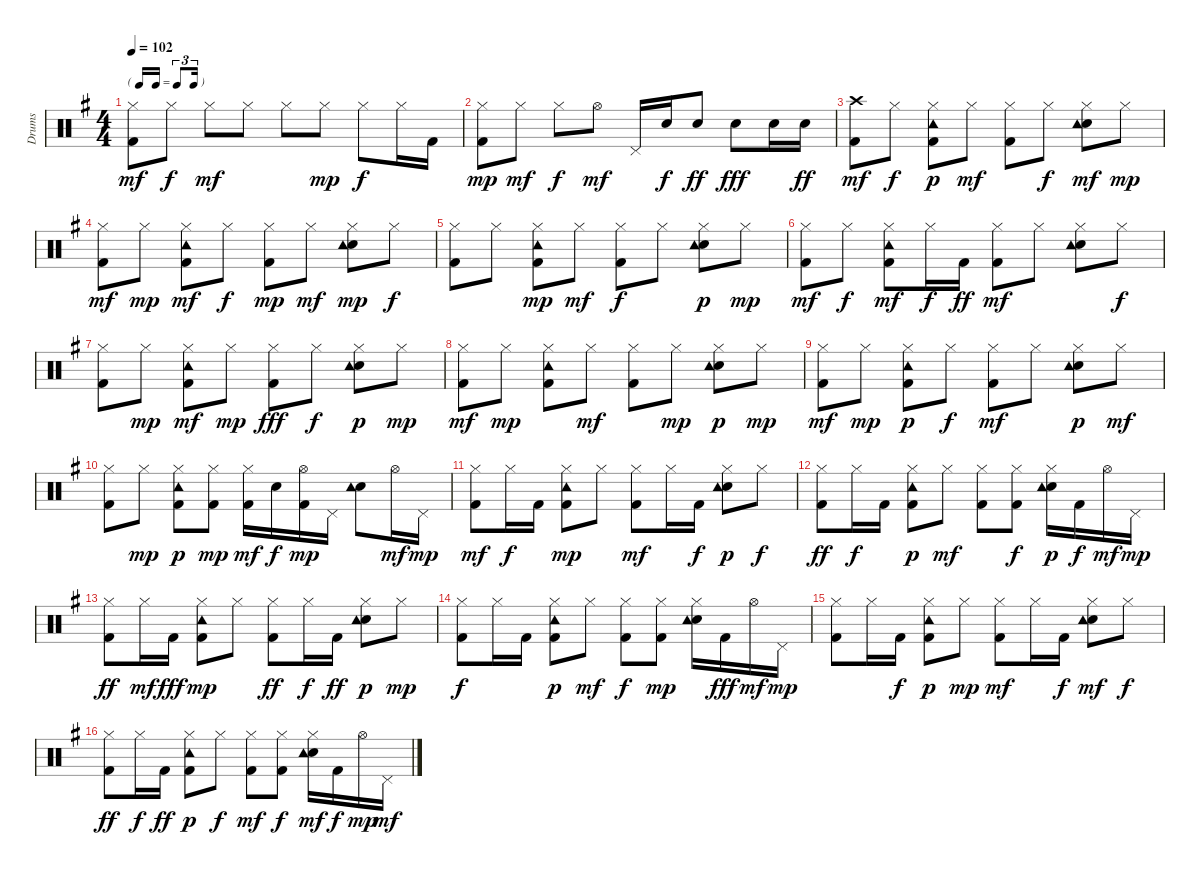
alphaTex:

\track ("Drums" "Drums") {instrument percussion}
\staff {score}
\articulation defaults
\ts (4 4)
\tf triplet16th
\tempo 102
\clef neutral
\ks g
("Kick (hit) 2" "Hi-Hat (closed)").8{dy mf} "Hi-Hat (closed)".8{dy f} "Hi-Hat (closed)".8{dy mf} "Hi-Hat (closed)".8 "Hi-Hat (closed)".8 "Hi-Hat (closed)".8{dy mp} "Hi-Hat (closed)".8{dy f} "Hi-Hat (closed)".16 "Kick (hit) 2".16 |
("Kick (hit) 2" "Hi-Hat (closed)").8{dy mp} "Hi-Hat (closed)".8{dy mf} "Hi-Hat (closed)".8{dy f} "Hi-Hat (open)".8{dy mf} "Pedal Hi-Hat (hit)".16 "Snare (hit) 2".16{dy f} "Snare (hit) 2".8{dy ff} "Snare (hit) 2".8{dy fff} "Snare (hit) 2".16 "Snare (hit) 2".16{dy ff} |
("Kick (hit) 2" "Crash high (hit)").8{dy mf} "Hi-Hat (closed)".8{dy f} ("Kick (hit) 2" "Hi-Hat (closed)" "Tambourine (hit)").8{dy p} "Hi-Hat (closed)".8{dy mf} ("Kick (hit) 2" "Hi-Hat (closed)").8 "Hi-Hat (closed)".8{dy f} ("Snare (hit) 2" "Hi-Hat (closed)" "Tambourine (hit)").8{dy mf} "Hi-Hat (closed)".8{dy mp} |
("Kick (hit) 2" "Hi-Hat (closed)").8{dy mf} "Hi-Hat (closed)".8{dy mp} ("Kick (hit) 2" "Hi-Hat (closed)" "Tambourine (hit)").8{dy mf} "Hi-Hat (closed)".8{dy f} ("Kick (hit) 2" "Hi-Hat (closed)").8{dy mp} "Hi-Hat (closed)".8{dy mf} ("Snare (hit) 2" "Hi-Hat (closed)" "Tambourine (hit)").8{dy mp} "Hi-Hat (closed)".8{dy f} |
("Kick (hit) 2" "Hi-Hat (closed)").8 "Hi-Hat (closed)".8 ("Kick (hit) 2" "Hi-Hat (closed)" "Tambourine (hit)").8{dy mp} "Hi-Hat (closed)".8{dy mf} ("Kick (hit) 2" "Hi-Hat (closed)").8{dy f} "Hi-Hat (closed)".8 ("Snare (hit) 2" "Hi-Hat (closed)" "Tambourine (hit)").8{dy p} "Hi-Hat (closed)".8{dy mp} |
("Kick (hit) 2" "Hi-Hat (closed)").8{dy mf} "Hi-Hat (closed)".8{dy f} ("Kick (hit) 2" "Hi-Hat (closed)" "Tambourine (hit)").8{dy mf} "Hi-Hat (closed)".16{dy f} "Kick (hit) 2".16{dy ff} ("Kick (hit) 2" "Hi-Hat (closed)").8{dy mf} "Hi-Hat (closed)".8 ("Snare (hit) 2" "Hi-Hat (closed)" "Tambourine (hit)").8 "Hi-Hat (closed)".8{dy f} |
("Kick (hit) 2" "Hi-Hat (closed)").8 "Hi-Hat (closed)".8{dy mp} ("Kick (hit) 2" "Hi-Hat (closed)" "Tambourine (hit)").8{dy mf} "Hi-Hat (closed)".8{dy mp} ("Kick (hit) 2" "Hi-Hat (closed)").8{dy fff} "Hi-Hat (closed)".8{dy f} ("Snare (hit) 2" "Hi-Hat (closed)" "Tambourine (hit)").8{dy p} "Hi-Hat (closed)".8{dy mp} |
("Kick (hit) 2" "Hi-Hat (closed)").8{dy mf} "Hi-Hat (closed)".8{dy mp} ("Kick (hit) 2" "Hi-Hat (closed)" "Tambourine (hit)").8 "Hi-Hat (closed)".8{dy mf} ("Kick (hit) 2" "Hi-Hat (closed)").8 "Hi-Hat (closed)".8{dy mp} ("Snare (hit) 2" "Hi-Hat (closed)" "Tambourine (hit)").8{dy p} "Hi-Hat (closed)".8{dy mp} |
("Kick (hit) 2" "Hi-Hat (closed)").8{dy mf} "Hi-Hat (closed)".8{dy mp} ("Kick (hit) 2" "Hi-Hat (closed)" "Tambourine (hit)").8{dy p} "Hi-Hat (closed)".8{dy f} ("Kick (hit) 2" "Hi-Hat (closed)").8{dy mf} "Hi-Hat (closed)".8 ("Snare (hit) 2" "Hi-Hat (closed)" "Tambourine (hit)").8{dy p} "Hi-Hat (closed)".8{dy mf} |
("Kick (hit) 2" "Hi-Hat (closed)").8 "Hi-Hat (closed)".8{dy mp} ("Kick (hit) 2" "Hi-Hat (closed)" "Tambourine (hit)").8{dy p} ("Kick (hit) 2" "Hi-Hat (closed)").8{dy mp} ("Kick (hit) 2" "Hi-Hat (closed)").16{dy mf} "Snare (hit) 2".16{dy f} ("Kick (hit) 2" "Hi-Hat (open)").16{dy mp} "Pedal Hi-Hat (hit)".16 ("Snare (hit) 2" "Tambourine (hit)").8 "Hi-Hat (open)".16{dy mf} "Pedal Hi-Hat (hit)".16{dy mp} |
("Kick (hit) 2" "Hi-Hat (closed)").8{dy mf} "Hi-Hat (closed)".16{dy f} "Kick (hit) 2".16 ("Kick (hit) 2" "Hi-Hat (closed)" "Tambourine (hit)").8{dy mp} "Hi-Hat (closed)".8 ("Kick (hit) 2" "Hi-Hat (closed)").8{dy mf} "Hi-Hat (closed)".16 "Kick (hit) 2".16{dy f} ("Snare (hit) 2" "Hi-Hat (closed)" "Tambourine (hit)").8{dy p} "Hi-Hat (closed)".8{dy f} |
("Kick (hit) 2" "Hi-Hat (closed)").8{dy ff} "Hi-Hat (closed)".16{dy f} "Kick (hit) 2".16 ("Kick (hit) 2" "Hi-Hat (closed)" "Tambourine (hit)").8{dy p} "Hi-Hat (closed)".8{dy mf} ("Kick (hit) 2" "Hi-Hat (closed)").8 ("Kick (hit) 2" "Hi-Hat (closed)").8{dy f} ("Snare (hit) 2" "Hi-Hat (closed)" "Tambourine (hit)").16{dy p} "Kick (hit) 2".16{dy f} "Hi-Hat (open)".16{dy mf} "Pedal Hi-Hat (hit)".16{dy mp} |
("Kick (hit) 2" "Hi-Hat (closed)").8{dy ff} "Hi-Hat (closed)".16{dy mf} "Kick (hit) 2".16{dy fff} ("Kick (hit) 2" "Hi-Hat (closed)" "Tambourine (hit)").8{dy mp} "Hi-Hat (closed)".8 ("Kick (hit) 2" "Hi-Hat (closed)").8{dy ff} "Hi-Hat (closed)".16{dy f} "Kick (hit) 2".16{dy ff} ("Snare (hit) 2" "Hi-Hat (closed)" "Tambourine (hit)").8{dy p} "Hi-Hat (closed)".8{dy mp} |
("Kick (hit) 2" "Hi-Hat (closed)").8{dy f} "Hi-Hat (closed)".16 "Kick (hit) 2".16 ("Kick (hit) 2" "Hi-Hat (closed)" "Tambourine (hit)").8{dy p} "Hi-Hat (closed)".8{dy mf} ("Kick (hit) 2" "Hi-Hat (closed)").8{dy f} ("Kick (hit) 2" "Hi-Hat (closed)").8{dy mp} ("Snare (hit) 2" "Hi-Hat (closed)" "Tambourine (hit)").16 "Kick (hit) 2".16{dy fff} "Hi-Hat (open)".16{dy mf} "Pedal Hi-Hat (hit)".16{dy mp} |
("Kick (hit) 2" "Hi-Hat (closed)").8 "Hi-Hat (closed)".16 "Kick (hit) 2".16{dy f} ("Kick (hit) 2" "Hi-Hat (closed)" "Tambourine (hit)").8{dy p} "Hi-Hat (closed)".8{dy mp} ("Kick (hit) 2" "Hi-Hat (closed)").8{dy mf} "Hi-Hat (closed)".16 "Kick (hit) 2".16{dy f} ("Snare (hit) 2" "Hi-Hat (closed)" "Tambourine (hit)").8{dy mf} "Hi-Hat (closed)".8{dy f} |
("Kick (hit) 2" "Hi-Hat (closed)").8{dy ff} "Hi-Hat (closed)".16{dy f} "Kick (hit) 2".16{dy ff} ("Kick (hit) 2" "Hi-Hat (closed)" "Tambourine (hit)").8{dy p} "Hi-Hat (closed)".8{dy f} ("Kick (hit) 2" "Hi-Hat (closed)").8{dy mf} ("Kick (hit) 2" "Hi-Hat (closed)").8{dy f} ("Snare (hit) 2" "Hi-Hat (closed)" "Tambourine (hit)").16{dy mf} "Kick (hit) 2".16{dy f} "Hi-Hat (open)".16{dy mp} "Pedal Hi-Hat (hit)".16{dy mf}
